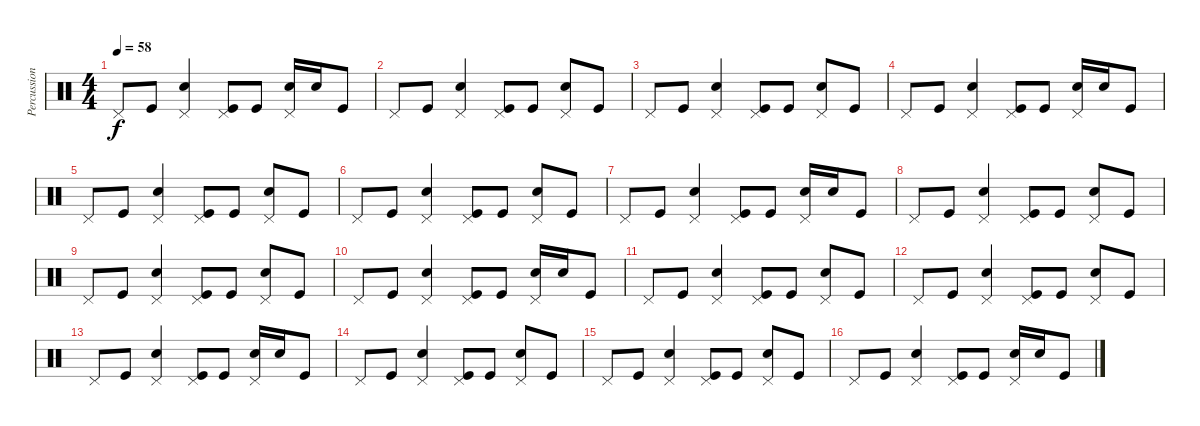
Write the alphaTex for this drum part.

\track ("Percussion" "Percussion") {instrument percussion}
\staff {score}
\articulation defaults
\ts (4 4)
\tempo 58
\clef neutral
\ks c "Pedal Hi-Hat (hit)".8{dy f} "Kick (hit)".8
("Pedal Hi-Hat (hit)" "Electric Snare (hit)").4 ("Pedal Hi-Hat (hit)" "Kick (hit)").8 "Kick (hit)".8 ("Pedal Hi-Hat (hit)" "Electric Snare (hit)").16 "Electric Snare (hit)".16 "Kick (hit)".8 |
"Pedal Hi-Hat (hit)".8 "Kick (hit)".8 ("Pedal Hi-Hat (hit)" "Electric Snare (hit)").4 ("Pedal Hi-Hat (hit)" "Kick (hit)").8 "Kick (hit)".8 ("Pedal Hi-Hat (hit)" "Electric Snare (hit)").8 "Kick (hit)".8 |
"Pedal Hi-Hat (hit)".8 "Kick (hit)".8 ("Pedal Hi-Hat (hit)" "Electric Snare (hit)").4 ("Pedal Hi-Hat (hit)" "Kick (hit)").8 "Kick (hit)".8 ("Pedal Hi-Hat (hit)" "Electric Snare (hit)").8 "Kick (hit)".8 |
"Pedal Hi-Hat (hit)".8 "Kick (hit)".8 ("Pedal Hi-Hat (hit)" "Electric Snare (hit)").4 ("Pedal Hi-Hat (hit)" "Kick (hit)").8 "Kick (hit)".8 ("Pedal Hi-Hat (hit)" "Electric Snare (hit)").16 "Electric Snare (hit)".16 "Kick (hit)".8 |
"Pedal Hi-Hat (hit)".8 "Kick (hit)".8 ("Pedal Hi-Hat (hit)" "Electric Snare (hit)").4 ("Pedal Hi-Hat (hit)" "Kick (hit)").8 "Kick (hit)".8 ("Pedal Hi-Hat (hit)" "Electric Snare (hit)").8 "Kick (hit)".8 |
"Pedal Hi-Hat (hit)".8 "Kick (hit)".8 ("Pedal Hi-Hat (hit)" "Electric Snare (hit)").4 ("Pedal Hi-Hat (hit)" "Kick (hit)").8 "Kick (hit)".8 ("Pedal Hi-Hat (hit)" "Electric Snare (hit)").8 "Kick (hit)".8 |
"Pedal Hi-Hat (hit)".8 "Kick (hit)".8 ("Pedal Hi-Hat (hit)" "Electric Snare (hit)").4 ("Pedal Hi-Hat (hit)" "Kick (hit)").8 "Kick (hit)".8 ("Pedal Hi-Hat (hit)" "Electric Snare (hit)").16 "Electric Snare (hit)".16 "Kick (hit)".8 |
"Pedal Hi-Hat (hit)".8 "Kick (hit)".8 ("Pedal Hi-Hat (hit)" "Electric Snare (hit)").4 ("Pedal Hi-Hat (hit)" "Kick (hit)").8 "Kick (hit)".8 ("Pedal Hi-Hat (hit)" "Electric Snare (hit)").8 "Kick (hit)".8 |
"Pedal Hi-Hat (hit)".8 "Kick (hit)".8 ("Pedal Hi-Hat (hit)" "Electric Snare (hit)").4 ("Pedal Hi-Hat (hit)" "Kick (hit)").8 "Kick (hit)".8 ("Pedal Hi-Hat (hit)" "Electric Snare (hit)").8 "Kick (hit)".8 |
"Pedal Hi-Hat (hit)".8 "Kick (hit)".8 ("Pedal Hi-Hat (hit)" "Electric Snare (hit)").4 ("Pedal Hi-Hat (hit)" "Kick (hit)").8 "Kick (hit)".8 ("Pedal Hi-Hat (hit)" "Electric Snare (hit)").16 "Electric Snare (hit)".16 "Kick (hit)".8 |
"Pedal Hi-Hat (hit)".8 "Kick (hit)".8 ("Pedal Hi-Hat (hit)" "Electric Snare (hit)").4 ("Pedal Hi-Hat (hit)" "Kick (hit)").8 "Kick (hit)".8 ("Pedal Hi-Hat (hit)" "Electric Snare (hit)").8 "Kick (hit)".8 |
"Pedal Hi-Hat (hit)".8 "Kick (hit)".8 ("Pedal Hi-Hat (hit)" "Electric Snare (hit)").4 ("Pedal Hi-Hat (hit)" "Kick (hit)").8 "Kick (hit)".8 ("Pedal Hi-Hat (hit)" "Electric Snare (hit)").8 "Kick (hit)".8 |
"Pedal Hi-Hat (hit)".8 "Kick (hit)".8 ("Pedal Hi-Hat (hit)" "Electric Snare (hit)").4 ("Pedal Hi-Hat (hit)" "Kick (hit)").8 "Kick (hit)".8 ("Pedal Hi-Hat (hit)" "Electric Snare (hit)").16 "Electric Snare (hit)".16 "Kick (hit)".8 |
"Pedal Hi-Hat (hit)".8 "Kick (hit)".8 ("Pedal Hi-Hat (hit)" "Electric Snare (hit)").4 ("Pedal Hi-Hat (hit)" "Kick (hit)").8 "Kick (hit)".8 ("Pedal Hi-Hat (hit)" "Electric Snare (hit)").8 "Kick (hit)".8 |
"Pedal Hi-Hat (hit)".8 "Kick (hit)".8 ("Pedal Hi-Hat (hit)" "Electric Snare (hit)").4 ("Pedal Hi-Hat (hit)" "Kick (hit)").8 "Kick (hit)".8 ("Pedal Hi-Hat (hit)" "Electric Snare (hit)").8 "Kick (hit)".8 |
"Pedal Hi-Hat (hit)".8 "Kick (hit)".8 ("Pedal Hi-Hat (hit)" "Electric Snare (hit)").4 ("Pedal Hi-Hat (hit)" "Kick (hit)").8 "Kick (hit)".8 ("Pedal Hi-Hat (hit)" "Electric Snare (hit)").16 "Electric Snare (hit)".16 "Kick (hit)".8
